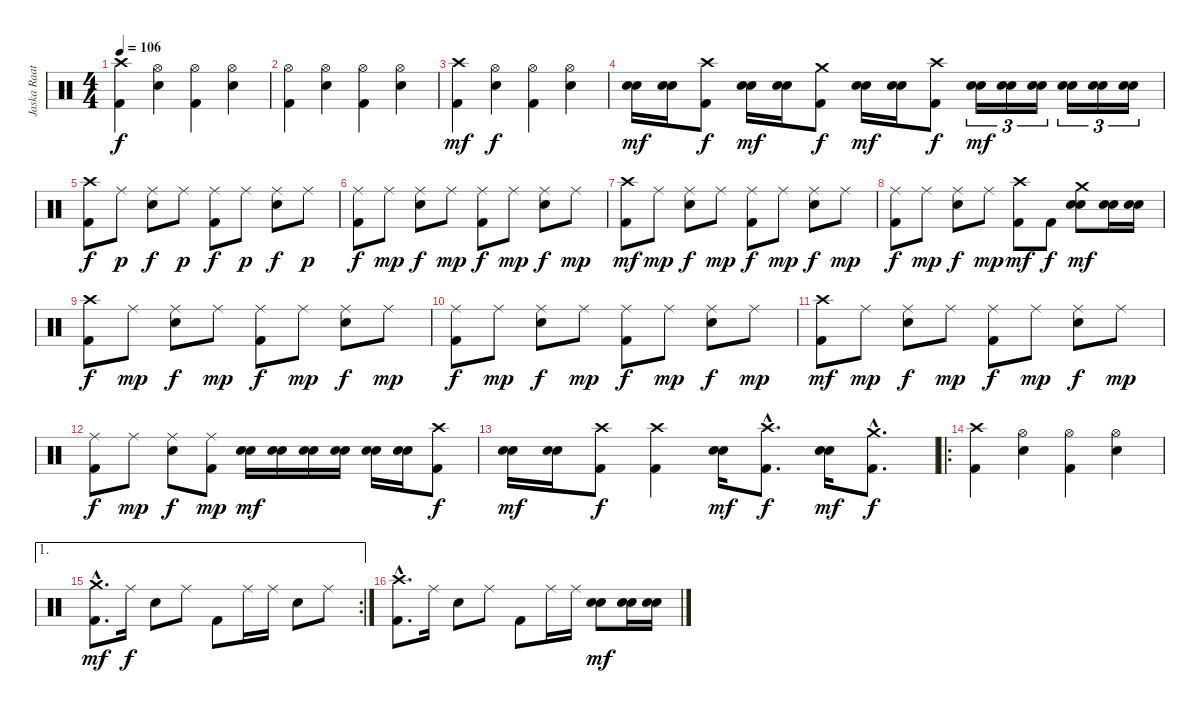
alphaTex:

\track ("Jaska Raatikainen" "Jaska Raat") {instrument percussion}
\staff {score}
\articulation defaults
\ts (4 4)
\tempo 106
\clef neutral
\ks c
("Kick (hit) 2" "Crash high (hit)").4{dy f} ("Hi-Hat (open)" "Snare (hit) 2").4 ("Kick (hit) 2" "Hi-Hat (open)").4 ("Hi-Hat (open)" "Snare (hit) 2").4 |
("Kick (hit) 2" "Hi-Hat (open)").4 ("Hi-Hat (open)" "Snare (hit) 2").4 ("Kick (hit) 2" "Hi-Hat (open)").4 ("Hi-Hat (open)" "Snare (hit) 2").4 |
("Kick (hit) 2" "Crash high (hit)").4{dy mf} ("Hi-Hat (open)" "Snare (hit) 2").4{dy f} ("Kick (hit) 2" "Hi-Hat (open)").4 ("Hi-Hat (open)" "Snare (hit) 2").4 |
("Electric Snare (hit)" "Snare (hit) 2").16{dy mf} ("Electric Snare (hit)" "Snare (hit) 2").16 ("Kick (hit) 2" "Crash high (hit)").8{dy f} ("Electric Snare (hit)" "Snare (hit) 2").16{dy mf} ("Electric Snare (hit)" "Snare (hit) 2").16 ("Kick (hit) 2" "Crash medium (hit)").8{dy f} ("Electric Snare (hit)" "Snare (hit) 2").16{dy mf} ("Electric Snare (hit)" "Snare (hit) 2").16 ("Kick (hit) 2" "Crash high (hit)").8{dy f} ("Electric Snare (hit)" "Snare (hit) 2").16{tu (3 2) dy mf} ("Electric Snare (hit)" "Snare (hit) 2").16{tu (3 2)} ("Electric Snare (hit)" "Snare (hit) 2").16{tu (3 2)} ("Electric Snare (hit)" "Snare (hit) 2").16{tu (3 2)} ("Electric Snare (hit)" "Snare (hit) 2").16{tu (3 2)} ("Electric Snare (hit)" "Snare (hit) 2").16{tu (3 2)} |
("Kick (hit) 2" "Crash high (hit)").8{dy f} "Ride (middle)".8{dy p} ("Ride (middle)" "Snare (hit) 2").8{dy f} "Ride (middle)".8{dy p} ("Kick (hit) 2" "Ride (middle)").8{dy f} "Ride (middle)".8{dy p} ("Ride (middle)" "Snare (hit) 2").8{dy f} "Ride (middle)".8{dy p} |
("Kick (hit) 2" "Ride (middle)").8{dy f} "Ride (middle)".8{dy mp} ("Ride (middle)" "Snare (hit) 2").8{dy f} "Ride (middle)".8{dy mp} ("Kick (hit) 2" "Ride (middle)").8{dy f} "Ride (middle)".8{dy mp} ("Ride (middle)" "Snare (hit) 2").8{dy f} "Ride (middle)".8{dy mp} |
("Kick (hit) 2" "Crash high (hit)").8{dy mf} "Ride (middle)".8{dy mp} ("Ride (middle)" "Snare (hit) 2").8{dy f} "Ride (middle)".8{dy mp} ("Kick (hit) 2" "Ride (middle)").8{dy f} "Ride (middle)".8{dy mp} ("Ride (middle)" "Snare (hit) 2").8{dy f} "Ride (middle)".8{dy mp} |
("Kick (hit) 2" "Ride (middle)").8{dy f} "Ride (middle)".8{dy mp} ("Ride (middle)" "Snare (hit) 2").8{dy f} "Ride (middle)".8{dy mp} ("Kick (hit) 2" "Crash high (hit)").8{dy mf} "Kick (hit) 2".8{dy f} ("Crash medium (hit)" "Electric Snare (hit)" "Snare (hit) 2").8{dy mf} ("Electric Snare (hit)" "Snare (hit) 2").16 ("Electric Snare (hit)" "Snare (hit) 2").16 |
("Kick (hit) 2" "Crash high (hit)").8{dy f} "Ride (middle)".8{dy mp} ("Ride (middle)" "Snare (hit) 2").8{dy f} "Ride (middle)".8{dy mp} ("Kick (hit) 2" "Ride (middle)").8{dy f} "Ride (middle)".8{dy mp} ("Ride (middle)" "Snare (hit) 2").8{dy f} "Ride (middle)".8{dy mp} |
("Kick (hit) 2" "Ride (middle)").8{dy f} "Ride (middle)".8{dy mp} ("Ride (middle)" "Snare (hit) 2").8{dy f} "Ride (middle)".8{dy mp} ("Kick (hit) 2" "Ride (middle)").8{dy f} "Ride (middle)".8{dy mp} ("Ride (middle)" "Snare (hit) 2").8{dy f} "Ride (middle)".8{dy mp} |
("Kick (hit) 2" "Crash high (hit)").8{dy mf} "Ride (middle)".8{dy mp} ("Ride (middle)" "Snare (hit) 2").8{dy f} "Ride (middle)".8{dy mp} ("Kick (hit) 2" "Ride (middle)").8{dy f} "Ride (middle)".8{dy mp} ("Ride (middle)" "Snare (hit) 2").8{dy f} "Ride (middle)".8{dy mp} |
("Kick (hit) 2" "Ride (middle)").8{dy f} "Ride (middle)".8{dy mp} ("Ride (middle)" "Snare (hit) 2").8{dy f} ("Kick (hit) 2" "Ride (middle)").8{dy mp} ("Electric Snare (hit)" "Snare (hit) 2").16{dy mf} ("Electric Snare (hit)" "Snare (hit) 2").16 ("Electric Snare (hit)" "Snare (hit) 2").16 ("Electric Snare (hit)" "Snare (hit) 2").16 ("Electric Snare (hit)" "Snare (hit) 2").16 ("Electric Snare (hit)" "Snare (hit) 2").16 ("Kick (hit) 2" "Crash high (hit)").8{dy f} |
("Electric Snare (hit)" "Snare (hit) 2").16{dy mf} ("Electric Snare (hit)" "Snare (hit) 2").16 ("Kick (hit) 2" "Crash high (hit)").8{dy f} ("Kick (hit) 2" "Crash high (hit)").4 ("Electric Snare (hit)" "Snare (hit) 2").16{dy mf} ("Kick (hit) 2"{hac} "Crash high (hit)"{hac}).8{d dy f} ("Electric Snare (hit)" "Snare (hit) 2").16{dy mf} ("Kick (hit) 2"{hac} "Crash medium (hit)"{hac}).8{d dy f} |
\ro
("Kick (hit) 2" "Crash high (hit)").4 ("Hi-Hat (open)" "Snare (hit) 2").4 ("Kick (hit) 2" "Hi-Hat (open)").4 ("Hi-Hat (open)" "Snare (hit) 2").4 |
\ae 1
\rc 2
("Kick (hit) 2"{hac} "Crash medium (hit)"{hac}).8{d dy mf} "Ride (middle)".16{dy f} "Snare (hit) 2".8 "Ride (middle)".8 "Kick (hit) 2".8 "Ride (middle)".16 "Ride (middle)".16 "Snare (hit) 2".8 "Ride (middle)".8 |
("Kick (hit) 2"{hac} "Crash high (hit)"{hac}).8{d} "Ride (middle)".16 "Snare (hit) 2".8 "Ride (middle)".8 "Kick (hit) 2".8 "Ride (middle)".16 "Ride (middle)".16 ("Electric Snare (hit)" "Snare (hit) 2").8{dy mf} ("Electric Snare (hit)" "Snare (hit) 2").16 ("Electric Snare (hit)" "Snare (hit) 2").16
